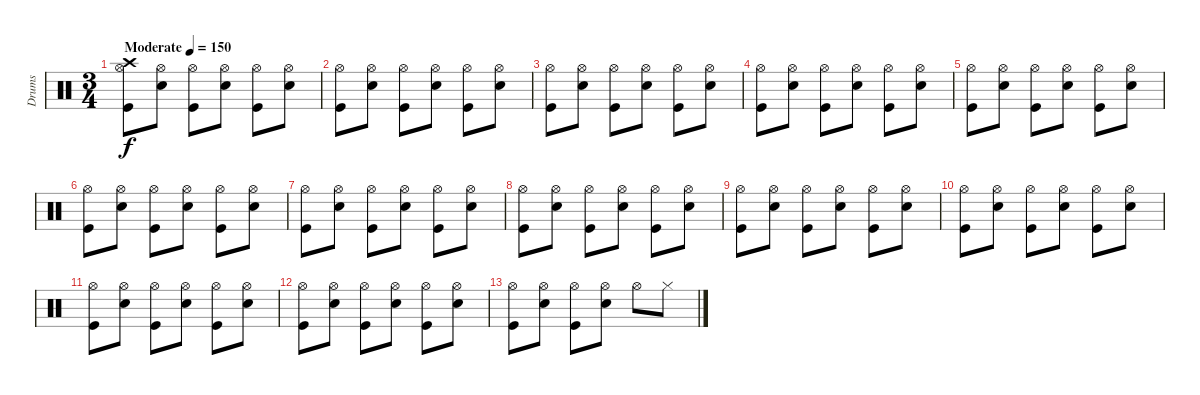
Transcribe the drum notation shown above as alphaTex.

\track ("Drums" "Drums") {instrument percussion}
\staff {score}
\articulation defaults
\ts (3 4)
\tempo (150 "Moderate")
\clef neutral
\ks c
("Crash high (hit)" "Hi-Hat (open)" "Kick (hit)").8{dy f} ("Hi-Hat (open)" "Snare (hit) 2").8 ("Hi-Hat (open)" "Kick (hit)").8 ("Hi-Hat (open)" "Snare (hit) 2").8 ("Hi-Hat (open)" "Kick (hit)").8 ("Hi-Hat (open)" "Snare (hit) 2").8 |
("Hi-Hat (open)" "Kick (hit)").8 ("Hi-Hat (open)" "Snare (hit) 2").8 ("Hi-Hat (open)" "Kick (hit)").8 ("Hi-Hat (open)" "Snare (hit) 2").8 ("Hi-Hat (open)" "Kick (hit)").8 ("Hi-Hat (open)" "Snare (hit) 2").8 |
("Hi-Hat (open)" "Kick (hit)").8 ("Hi-Hat (open)" "Snare (hit) 2").8 ("Hi-Hat (open)" "Kick (hit)").8 ("Hi-Hat (open)" "Snare (hit) 2").8 ("Hi-Hat (open)" "Kick (hit)").8 ("Hi-Hat (open)" "Snare (hit) 2").8 |
("Hi-Hat (open)" "Kick (hit)").8 ("Hi-Hat (open)" "Snare (hit) 2").8 ("Hi-Hat (open)" "Kick (hit)").8 ("Hi-Hat (open)" "Snare (hit) 2").8 ("Hi-Hat (open)" "Kick (hit)").8 ("Hi-Hat (open)" "Snare (hit) 2").8 |
("Hi-Hat (open)" "Kick (hit)").8 ("Hi-Hat (open)" "Snare (hit) 2").8 ("Hi-Hat (open)" "Kick (hit)").8 ("Hi-Hat (open)" "Snare (hit) 2").8 ("Hi-Hat (open)" "Kick (hit)").8 ("Hi-Hat (open)" "Snare (hit) 2").8 |
("Hi-Hat (open)" "Kick (hit)").8 ("Hi-Hat (open)" "Snare (hit) 2").8 ("Hi-Hat (open)" "Kick (hit)").8 ("Hi-Hat (open)" "Snare (hit) 2").8 ("Hi-Hat (open)" "Kick (hit)").8 ("Hi-Hat (open)" "Snare (hit) 2").8 |
("Hi-Hat (open)" "Kick (hit)").8 ("Hi-Hat (open)" "Snare (hit) 2").8 ("Hi-Hat (open)" "Kick (hit)").8 ("Hi-Hat (open)" "Snare (hit) 2").8 ("Hi-Hat (open)" "Kick (hit)").8 ("Hi-Hat (open)" "Snare (hit) 2").8 |
("Hi-Hat (open)" "Kick (hit)").8 ("Hi-Hat (open)" "Snare (hit) 2").8 ("Hi-Hat (open)" "Kick (hit)").8 ("Hi-Hat (open)" "Snare (hit) 2").8 ("Hi-Hat (open)" "Kick (hit)").8 ("Hi-Hat (open)" "Snare (hit) 2").8 |
("Hi-Hat (open)" "Kick (hit)").8 ("Hi-Hat (open)" "Snare (hit) 2").8 ("Hi-Hat (open)" "Kick (hit)").8 ("Hi-Hat (open)" "Snare (hit) 2").8 ("Hi-Hat (open)" "Kick (hit)").8 ("Hi-Hat (open)" "Snare (hit) 2").8 |
("Hi-Hat (open)" "Kick (hit)").8 ("Hi-Hat (open)" "Snare (hit) 2").8 ("Hi-Hat (open)" "Kick (hit)").8 ("Hi-Hat (open)" "Snare (hit) 2").8 ("Hi-Hat (open)" "Kick (hit)").8 ("Hi-Hat (open)" "Snare (hit) 2").8 |
("Hi-Hat (open)" "Kick (hit)").8 ("Hi-Hat (open)" "Snare (hit) 2").8 ("Hi-Hat (open)" "Kick (hit)").8 ("Hi-Hat (open)" "Snare (hit) 2").8 ("Hi-Hat (open)" "Kick (hit)").8 ("Hi-Hat (open)" "Snare (hit) 2").8 |
("Hi-Hat (open)" "Kick (hit)").8 ("Hi-Hat (open)" "Snare (hit) 2").8 ("Hi-Hat (open)" "Kick (hit)").8 ("Hi-Hat (open)" "Snare (hit) 2").8 ("Hi-Hat (open)" "Kick (hit)").8 ("Hi-Hat (open)" "Snare (hit) 2").8 |
("Hi-Hat (open)" "Kick (hit)").8 ("Hi-Hat (open)" "Snare (hit) 2").8 ("Hi-Hat (open)" "Kick (hit)").8 ("Hi-Hat (open)" "Snare (hit) 2").8 "Hi-Hat (open)".8 "Hi-Hat (closed)".8
